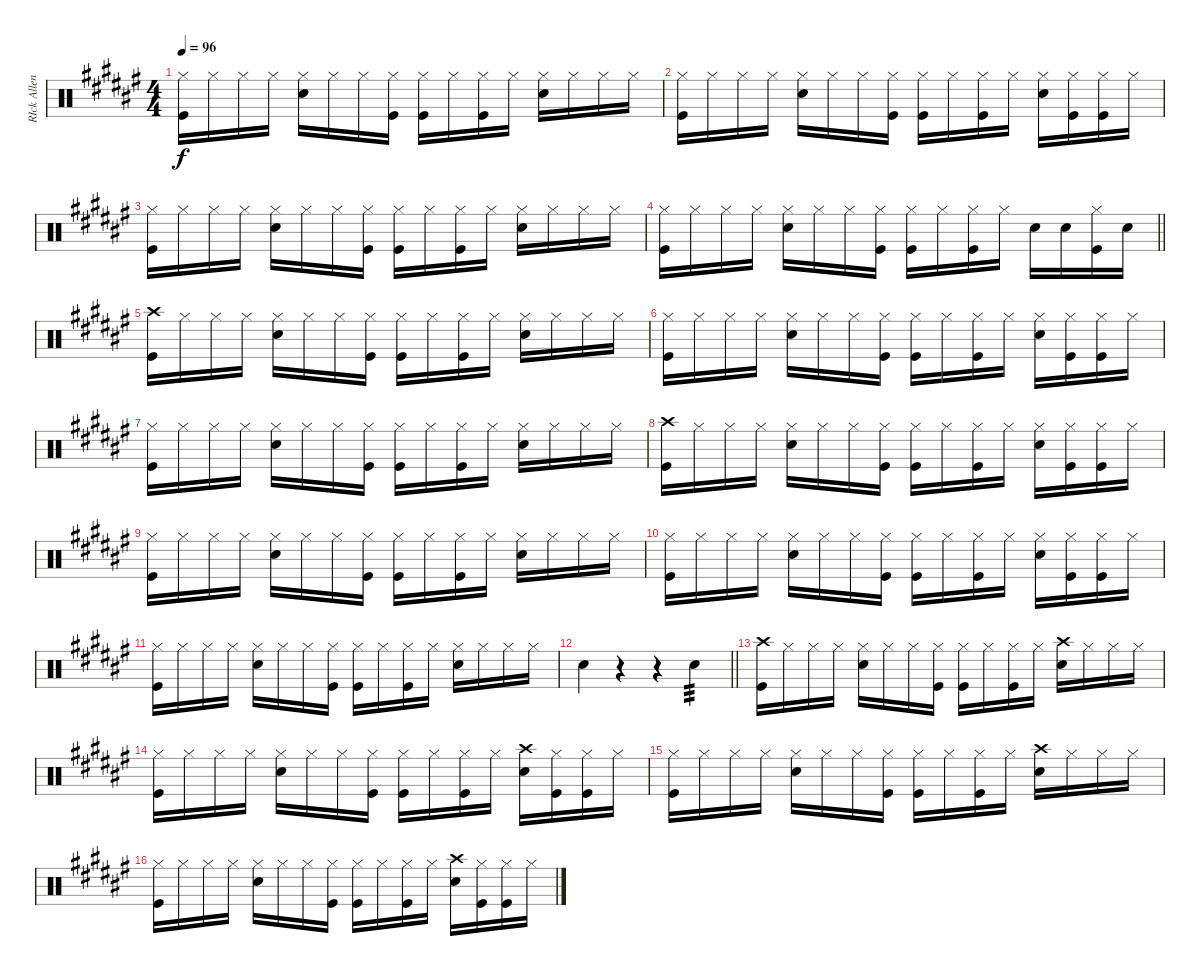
\track ("RIck Allen" "RIck Allen") {instrument percussion}
\staff {score}
\articulation defaults
\ts (4 4)
\tempo 96
\clef neutral
\ks f#
("Hi-Hat (closed)" "Kick (hit)").16{dy f} "Hi-Hat (closed)".16 "Hi-Hat (closed)".16 "Hi-Hat (closed)".16 ("Hi-Hat (closed)" "Snare (hit) 2").16 "Hi-Hat (closed)".16 "Hi-Hat (closed)".16 ("Hi-Hat (closed)" "Kick (hit)").16 ("Hi-Hat (closed)" "Kick (hit)").16 "Hi-Hat (closed)".16 ("Hi-Hat (closed)" "Kick (hit)").16 "Hi-Hat (closed)".16 ("Hi-Hat (closed)" "Snare (hit) 2").16 "Hi-Hat (closed)".16 "Hi-Hat (closed)".16 "Hi-Hat (closed)".16 |
("Hi-Hat (closed)" "Kick (hit)").16 "Hi-Hat (closed)".16 "Hi-Hat (closed)".16 "Hi-Hat (closed)".16 ("Hi-Hat (closed)" "Snare (hit) 2").16 "Hi-Hat (closed)".16 "Hi-Hat (closed)".16 ("Hi-Hat (closed)" "Kick (hit)").16 ("Hi-Hat (closed)" "Kick (hit)").16 "Hi-Hat (closed)".16 ("Hi-Hat (closed)" "Kick (hit)").16 "Hi-Hat (closed)".16 ("Hi-Hat (closed)" "Snare (hit) 2").16 ("Hi-Hat (closed)" "Kick (hit)").16 ("Hi-Hat (closed)" "Kick (hit)").16 "Hi-Hat (closed)".16 |
("Hi-Hat (closed)" "Kick (hit)").16 "Hi-Hat (closed)".16 "Hi-Hat (closed)".16 "Hi-Hat (closed)".16 ("Hi-Hat (closed)" "Snare (hit) 2").16 "Hi-Hat (closed)".16 "Hi-Hat (closed)".16 ("Hi-Hat (closed)" "Kick (hit)").16 ("Hi-Hat (closed)" "Kick (hit)").16 "Hi-Hat (closed)".16 ("Hi-Hat (closed)" "Kick (hit)").16 "Hi-Hat (closed)".16 ("Hi-Hat (closed)" "Snare (hit) 2").16 "Hi-Hat (closed)".16 "Hi-Hat (closed)".16 "Hi-Hat (closed)".16 |
\barLineRight lightlight
("Hi-Hat (closed)" "Kick (hit)").16 "Hi-Hat (closed)".16 "Hi-Hat (closed)".16 "Hi-Hat (closed)".16 ("Hi-Hat (closed)" "Snare (hit) 2").16 "Hi-Hat (closed)".16 "Hi-Hat (closed)".16 ("Hi-Hat (closed)" "Kick (hit)").16 ("Hi-Hat (closed)" "Kick (hit)").16 "Hi-Hat (closed)".16 ("Hi-Hat (closed)" "Kick (hit)").16 "Hi-Hat (closed)".16 "Snare (hit) 2".16 "Snare (hit) 2".16 ("Hi-Hat (closed)" "Kick (hit)").16 "Snare (hit) 2".16 |
("Crash high (hit)" "Kick (hit)").16 "Hi-Hat (closed)".16 "Hi-Hat (closed)".16 "Hi-Hat (closed)".16 ("Hi-Hat (closed)" "Snare (hit) 2").16 "Hi-Hat (closed)".16 "Hi-Hat (closed)".16 ("Hi-Hat (closed)" "Kick (hit)").16 ("Hi-Hat (closed)" "Kick (hit)").16 "Hi-Hat (closed)".16 ("Hi-Hat (closed)" "Kick (hit)").16 "Hi-Hat (closed)".16 ("Hi-Hat (closed)" "Snare (hit) 2").16 "Hi-Hat (closed)".16 "Hi-Hat (closed)".16 "Hi-Hat (closed)".16 |
("Hi-Hat (closed)" "Kick (hit)").16 "Hi-Hat (closed)".16 "Hi-Hat (closed)".16 "Hi-Hat (closed)".16 ("Hi-Hat (closed)" "Snare (hit) 2").16 "Hi-Hat (closed)".16 "Hi-Hat (closed)".16 ("Hi-Hat (closed)" "Kick (hit)").16 ("Hi-Hat (closed)" "Kick (hit)").16 "Hi-Hat (closed)".16 ("Hi-Hat (closed)" "Kick (hit)").16 "Hi-Hat (closed)".16 ("Hi-Hat (closed)" "Snare (hit) 2").16 ("Hi-Hat (closed)" "Kick (hit)").16 ("Hi-Hat (closed)" "Kick (hit)").16 "Hi-Hat (closed)".16 |
("Hi-Hat (closed)" "Kick (hit)").16 "Hi-Hat (closed)".16 "Hi-Hat (closed)".16 "Hi-Hat (closed)".16 ("Hi-Hat (closed)" "Snare (hit) 2").16 "Hi-Hat (closed)".16 "Hi-Hat (closed)".16 ("Hi-Hat (closed)" "Kick (hit)").16 ("Hi-Hat (closed)" "Kick (hit)").16 "Hi-Hat (closed)".16 ("Hi-Hat (closed)" "Kick (hit)").16 "Hi-Hat (closed)".16 ("Hi-Hat (closed)" "Snare (hit) 2").16 "Hi-Hat (closed)".16 "Hi-Hat (closed)".16 "Hi-Hat (closed)".16 |
("Crash high (hit)" "Kick (hit)").16 "Hi-Hat (closed)".16 "Hi-Hat (closed)".16 "Hi-Hat (closed)".16 ("Hi-Hat (closed)" "Snare (hit) 2").16 "Hi-Hat (closed)".16 "Hi-Hat (closed)".16 ("Hi-Hat (closed)" "Kick (hit)").16 ("Hi-Hat (closed)" "Kick (hit)").16 "Hi-Hat (closed)".16 ("Hi-Hat (closed)" "Kick (hit)").16 "Hi-Hat (closed)".16 ("Hi-Hat (closed)" "Snare (hit) 2").16 ("Hi-Hat (closed)" "Kick (hit)").16 ("Hi-Hat (closed)" "Kick (hit)").16 "Hi-Hat (closed)".16 |
("Hi-Hat (closed)" "Kick (hit)").16 "Hi-Hat (closed)".16 "Hi-Hat (closed)".16 "Hi-Hat (closed)".16 ("Hi-Hat (closed)" "Snare (hit) 2").16 "Hi-Hat (closed)".16 "Hi-Hat (closed)".16 ("Hi-Hat (closed)" "Kick (hit)").16 ("Hi-Hat (closed)" "Kick (hit)").16 "Hi-Hat (closed)".16 ("Hi-Hat (closed)" "Kick (hit)").16 "Hi-Hat (closed)".16 ("Hi-Hat (closed)" "Snare (hit) 2").16 "Hi-Hat (closed)".16 "Hi-Hat (closed)".16 "Hi-Hat (closed)".16 |
("Hi-Hat (closed)" "Kick (hit)").16 "Hi-Hat (closed)".16 "Hi-Hat (closed)".16 "Hi-Hat (closed)".16 ("Hi-Hat (closed)" "Snare (hit) 2").16 "Hi-Hat (closed)".16 "Hi-Hat (closed)".16 ("Hi-Hat (closed)" "Kick (hit)").16 ("Hi-Hat (closed)" "Kick (hit)").16 "Hi-Hat (closed)".16 ("Hi-Hat (closed)" "Kick (hit)").16 "Hi-Hat (closed)".16 ("Hi-Hat (closed)" "Snare (hit) 2").16 ("Hi-Hat (closed)" "Kick (hit)").16 ("Hi-Hat (closed)" "Kick (hit)").16 "Hi-Hat (closed)".16 |
("Hi-Hat (closed)" "Kick (hit)").16 "Hi-Hat (closed)".16 "Hi-Hat (closed)".16 "Hi-Hat (closed)".16 ("Hi-Hat (closed)" "Snare (hit) 2").16 "Hi-Hat (closed)".16 "Hi-Hat (closed)".16 ("Hi-Hat (closed)" "Kick (hit)").16 ("Hi-Hat (closed)" "Kick (hit)").16 "Hi-Hat (closed)".16 ("Hi-Hat (closed)" "Kick (hit)").16 "Hi-Hat (closed)".16 ("Hi-Hat (closed)" "Snare (hit) 2").16 "Hi-Hat (closed)".16 "Hi-Hat (closed)".16 "Hi-Hat (closed)".16 |
\barLineRight lightlight "Snare (hit) 2".4
r.4 r.4 "Snare (hit) 2".4{tp 3} |
("Crash high (hit)" "Kick (hit)").16 "Hi-Hat (closed)".16 "Hi-Hat (closed)".16 "Hi-Hat (closed)".16 ("Hi-Hat (closed)" "Snare (hit) 2").16 "Hi-Hat (closed)".16 "Hi-Hat (closed)".16 ("Hi-Hat (closed)" "Kick (hit)").16 ("Hi-Hat (closed)" "Kick (hit)").16 "Hi-Hat (closed)".16 ("Hi-Hat (closed)" "Kick (hit)").16 "Hi-Hat (closed)".16 ("Crash high (hit)" "Snare (hit) 2").16 "Hi-Hat (closed)".16 "Hi-Hat (closed)".16 "Hi-Hat (closed)".16 |
("Hi-Hat (closed)" "Kick (hit)").16 "Hi-Hat (closed)".16 "Hi-Hat (closed)".16 "Hi-Hat (closed)".16 ("Hi-Hat (closed)" "Snare (hit) 2").16 "Hi-Hat (closed)".16 "Hi-Hat (closed)".16 ("Hi-Hat (closed)" "Kick (hit)").16 ("Hi-Hat (closed)" "Kick (hit)").16 "Hi-Hat (closed)".16 ("Hi-Hat (closed)" "Kick (hit)").16 "Hi-Hat (closed)".16 ("Crash high (hit)" "Snare (hit) 2").16 ("Hi-Hat (closed)" "Kick (hit)").16 ("Hi-Hat (closed)" "Kick (hit)").16 "Hi-Hat (closed)".16 |
("Hi-Hat (closed)" "Kick (hit)").16 "Hi-Hat (closed)".16 "Hi-Hat (closed)".16 "Hi-Hat (closed)".16 ("Hi-Hat (closed)" "Snare (hit) 2").16 "Hi-Hat (closed)".16 "Hi-Hat (closed)".16 ("Hi-Hat (closed)" "Kick (hit)").16 ("Hi-Hat (closed)" "Kick (hit)").16 "Hi-Hat (closed)".16 ("Hi-Hat (closed)" "Kick (hit)").16 "Hi-Hat (closed)".16 ("Crash high (hit)" "Snare (hit) 2").16 "Hi-Hat (closed)".16 "Hi-Hat (closed)".16 "Hi-Hat (closed)".16 |
("Hi-Hat (closed)" "Kick (hit)").16 "Hi-Hat (closed)".16 "Hi-Hat (closed)".16 "Hi-Hat (closed)".16 ("Hi-Hat (closed)" "Snare (hit) 2").16 "Hi-Hat (closed)".16 "Hi-Hat (closed)".16 ("Hi-Hat (closed)" "Kick (hit)").16 ("Hi-Hat (closed)" "Kick (hit)").16 "Hi-Hat (closed)".16 ("Hi-Hat (closed)" "Kick (hit)").16 "Hi-Hat (closed)".16 ("Crash high (hit)" "Snare (hit) 2").16 ("Hi-Hat (closed)" "Kick (hit)").16 ("Hi-Hat (closed)" "Kick (hit)").16 "Hi-Hat (closed)".16
